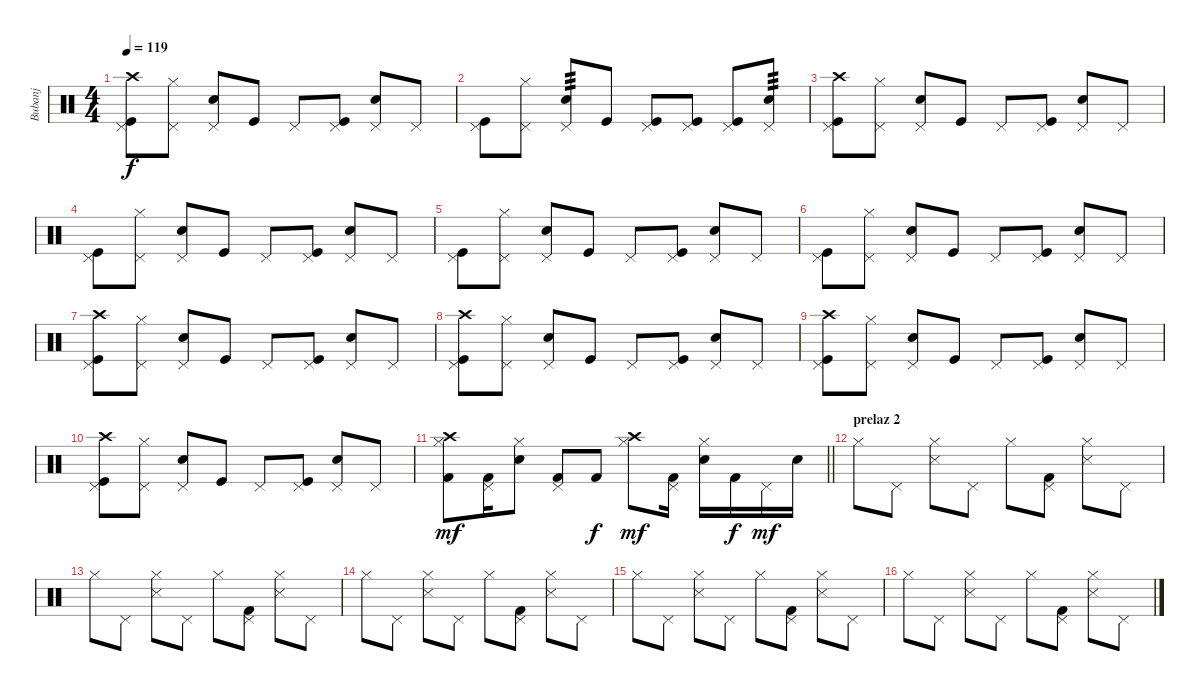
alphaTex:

\track ("Bubanj" "Bubanj") {instrument percussion}
\staff {score}
\articulation defaults
\ts (4 4)
\tempo 119
\clef neutral
\ks c
("Pedal Hi-Hat (hit)" "Crash high (hit)" "Kick (hit)").8{dy f} ("Pedal Hi-Hat (hit)" "Hi-Hat (closed)").8 ("Pedal Hi-Hat (hit)" "Electric Snare (hit)").8 "Kick (hit)".8 "Pedal Hi-Hat (hit)".8 ("Pedal Hi-Hat (hit)" "Kick (hit)").8 ("Pedal Hi-Hat (hit)" "Electric Snare (hit)").8 "Pedal Hi-Hat (hit)".8 |
("Pedal Hi-Hat (hit)" "Kick (hit)").8 ("Pedal Hi-Hat (hit)" "Hi-Hat (closed)").8 ("Pedal Hi-Hat (hit)" "Electric Snare (hit)").8{tp 3} "Kick (hit)".8 ("Pedal Hi-Hat (hit)" "Kick (hit)").8 ("Pedal Hi-Hat (hit)" "Kick (hit)").8 ("Pedal Hi-Hat (hit)" "Kick (hit)").8 ("Pedal Hi-Hat (hit)" "Electric Snare (hit)").8{tp 3} |
("Pedal Hi-Hat (hit)" "Crash high (hit)" "Kick (hit)").8 ("Pedal Hi-Hat (hit)" "Hi-Hat (closed)").8 ("Pedal Hi-Hat (hit)" "Electric Snare (hit)").8 "Kick (hit)".8 "Pedal Hi-Hat (hit)".8 ("Pedal Hi-Hat (hit)" "Kick (hit)").8 ("Pedal Hi-Hat (hit)" "Electric Snare (hit)").8 "Pedal Hi-Hat (hit)".8 |
("Pedal Hi-Hat (hit)" "Kick (hit)").8 ("Pedal Hi-Hat (hit)" "Hi-Hat (closed)").8 ("Pedal Hi-Hat (hit)" "Electric Snare (hit)").8 "Kick (hit)".8 "Pedal Hi-Hat (hit)".8 ("Pedal Hi-Hat (hit)" "Kick (hit)").8 ("Pedal Hi-Hat (hit)" "Electric Snare (hit)").8 "Pedal Hi-Hat (hit)".8 |
("Pedal Hi-Hat (hit)" "Kick (hit)").8 ("Pedal Hi-Hat (hit)" "Hi-Hat (closed)").8 ("Pedal Hi-Hat (hit)" "Electric Snare (hit)").8 "Kick (hit)".8 "Pedal Hi-Hat (hit)".8 ("Pedal Hi-Hat (hit)" "Kick (hit)").8 ("Pedal Hi-Hat (hit)" "Electric Snare (hit)").8 "Pedal Hi-Hat (hit)".8 |
("Pedal Hi-Hat (hit)" "Kick (hit)").8 ("Pedal Hi-Hat (hit)" "Hi-Hat (closed)").8 ("Pedal Hi-Hat (hit)" "Electric Snare (hit)").8 "Kick (hit)".8 "Pedal Hi-Hat (hit)".8 ("Pedal Hi-Hat (hit)" "Kick (hit)").8 ("Pedal Hi-Hat (hit)" "Electric Snare (hit)").8 "Pedal Hi-Hat (hit)".8 |
("Pedal Hi-Hat (hit)" "Crash high (hit)" "Kick (hit)").8 ("Pedal Hi-Hat (hit)" "Hi-Hat (closed)").8 ("Pedal Hi-Hat (hit)" "Electric Snare (hit)").8 "Kick (hit)".8 "Pedal Hi-Hat (hit)".8 ("Pedal Hi-Hat (hit)" "Kick (hit)").8 ("Pedal Hi-Hat (hit)" "Electric Snare (hit)").8 "Pedal Hi-Hat (hit)".8 |
("Pedal Hi-Hat (hit)" "Crash high (hit)" "Kick (hit)").8 ("Pedal Hi-Hat (hit)" "Hi-Hat (closed)").8 ("Pedal Hi-Hat (hit)" "Electric Snare (hit)").8 "Kick (hit)".8 "Pedal Hi-Hat (hit)".8 ("Pedal Hi-Hat (hit)" "Kick (hit)").8 ("Pedal Hi-Hat (hit)" "Electric Snare (hit)").8 "Pedal Hi-Hat (hit)".8 |
("Pedal Hi-Hat (hit)" "Crash high (hit)" "Kick (hit)").8 ("Pedal Hi-Hat (hit)" "Hi-Hat (closed)").8 ("Pedal Hi-Hat (hit)" "Electric Snare (hit)").8 "Kick (hit)".8 "Pedal Hi-Hat (hit)".8 ("Pedal Hi-Hat (hit)" "Kick (hit)").8 ("Pedal Hi-Hat (hit)" "Electric Snare (hit)").8 "Pedal Hi-Hat (hit)".8 |
("Pedal Hi-Hat (hit)" "Crash high (hit)" "Kick (hit)").8 ("Pedal Hi-Hat (hit)" "Hi-Hat (closed)").8 ("Pedal Hi-Hat (hit)" "Electric Snare (hit)").8 "Kick (hit)".8 "Pedal Hi-Hat (hit)".8 ("Pedal Hi-Hat (hit)" "Kick (hit)").8 ("Pedal Hi-Hat (hit)" "Electric Snare (hit)").8 "Pedal Hi-Hat (hit)".8 |
\barLineRight lightlight
("Hi-Hat (closed)" "Kick (hit) 2" "Crash high (hit)").8{dy mf} ("Kick (hit) 2" "Pedal Hi-Hat (hit)").16 ("Hi-Hat (closed)" "Electric Snare (hit)").8 ("Pedal Hi-Hat (hit)" "Kick (hit) 2").8 "Kick (hit) 2".8{dy f} ("Hi-Hat (closed)" "Crash high (hit)").8{dy mf} ("Pedal Hi-Hat (hit)" "Kick (hit) 2").16 ("Hi-Hat (closed)" "Electric Snare (hit)").16 "Kick (hit) 2".16{dy f} "Pedal Hi-Hat (hit)".16{dy mf} "Electric Snare (hit)".16 |
\section ("" "prelaz 2")
"Hi-Hat (closed)".8 "Pedal Hi-Hat (hit)".8 ("Snare (side stick) 3" "Hi-Hat (closed)").8 "Pedal Hi-Hat (hit)".8 "Hi-Hat (closed)".8 ("Kick (hit) 2" "Pedal Hi-Hat (hit)").8 ("Snare (side stick) 3" "Hi-Hat (closed)").8 "Pedal Hi-Hat (hit)".8 |
"Hi-Hat (closed)".8 "Pedal Hi-Hat (hit)".8 ("Snare (side stick) 3" "Hi-Hat (closed)").8 "Pedal Hi-Hat (hit)".8 "Hi-Hat (closed)".8 ("Kick (hit) 2" "Pedal Hi-Hat (hit)").8 ("Snare (side stick) 3" "Hi-Hat (closed)").8 "Pedal Hi-Hat (hit)".8 |
"Hi-Hat (closed)".8 "Pedal Hi-Hat (hit)".8 ("Snare (side stick) 3" "Hi-Hat (closed)").8 "Pedal Hi-Hat (hit)".8 "Hi-Hat (closed)".8 ("Kick (hit) 2" "Pedal Hi-Hat (hit)").8 ("Snare (side stick) 3" "Hi-Hat (closed)").8 "Pedal Hi-Hat (hit)".8 |
"Hi-Hat (closed)".8 "Pedal Hi-Hat (hit)".8 ("Snare (side stick) 3" "Hi-Hat (closed)").8 "Pedal Hi-Hat (hit)".8 "Hi-Hat (closed)".8 ("Kick (hit) 2" "Pedal Hi-Hat (hit)").8 ("Snare (side stick) 3" "Hi-Hat (closed)").8 "Pedal Hi-Hat (hit)".8 |
"Hi-Hat (closed)".8 "Pedal Hi-Hat (hit)".8 ("Snare (side stick) 3" "Hi-Hat (closed)").8 "Pedal Hi-Hat (hit)".8 "Hi-Hat (closed)".8 ("Kick (hit) 2" "Pedal Hi-Hat (hit)").8 ("Snare (side stick) 3" "Hi-Hat (closed)").8 "Pedal Hi-Hat (hit)".8
